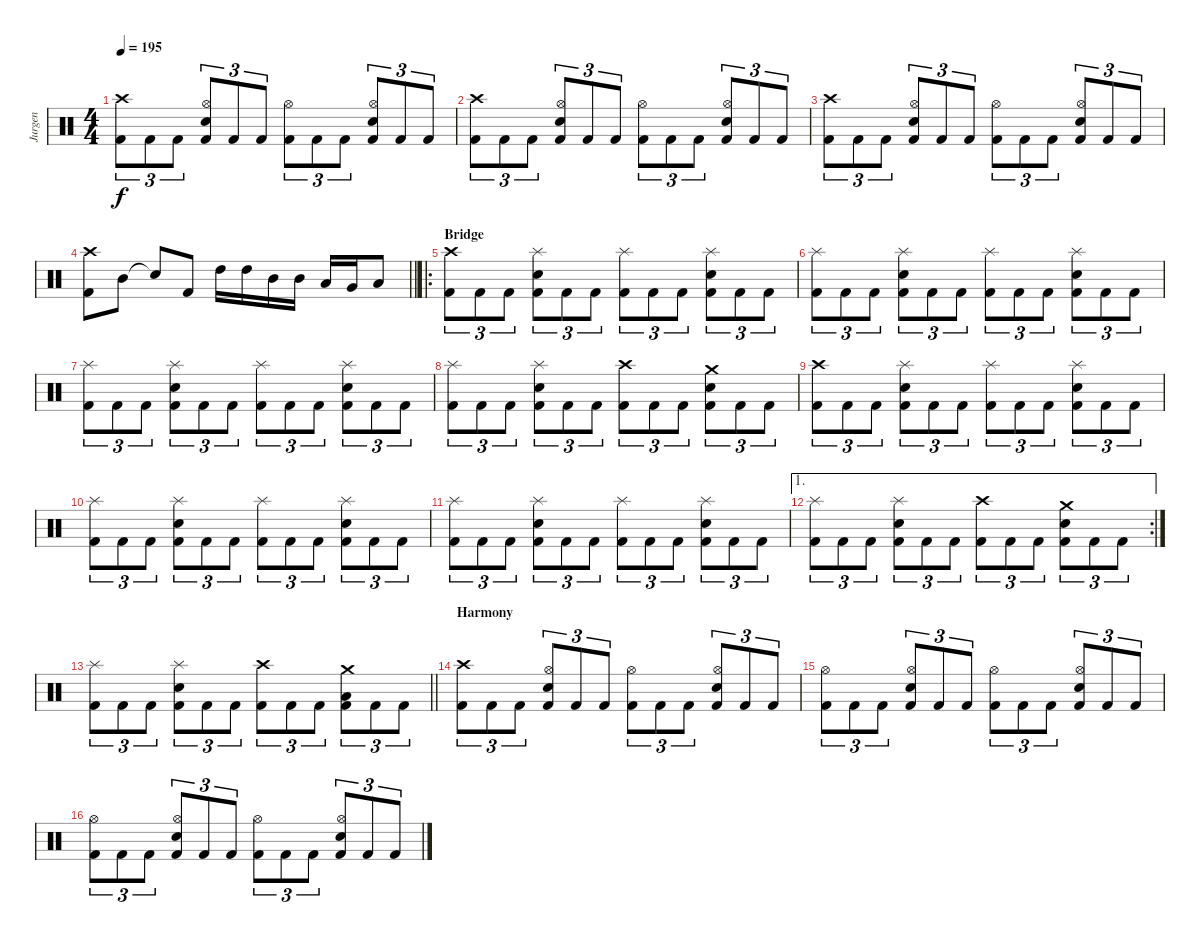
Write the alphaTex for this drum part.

\track ("Jurgen" "Jurgen") {instrument percussion}
\staff {score}
\articulation defaults
\ts (4 4)
\tempo 195
\clef neutral
\ks c
("Crash high (hit)" "Kick (hit) 2").8{tu (3 2) dy f} "Kick (hit) 2".8{tu (3 2)} "Kick (hit) 2".8{tu (3 2)} ("Hi-Hat (open)" "Snare (hit) 2" "Kick (hit) 2").8{tu (3 2)} "Kick (hit) 2".8{tu (3 2)} "Kick (hit) 2".8{tu (3 2)} ("Hi-Hat (open)" "Kick (hit) 2").8{tu (3 2)} "Kick (hit) 2".8{tu (3 2)} "Kick (hit) 2".8{tu (3 2)} ("Hi-Hat (open)" "Snare (hit) 2" "Kick (hit) 2").8{tu (3 2)} "Kick (hit) 2".8{tu (3 2)} "Kick (hit) 2".8{tu (3 2)} |
("Crash high (hit)" "Kick (hit) 2").8{tu (3 2)} "Kick (hit) 2".8{tu (3 2)} "Kick (hit) 2".8{tu (3 2)} ("Hi-Hat (open)" "Snare (hit) 2" "Kick (hit) 2").8{tu (3 2)} "Kick (hit) 2".8{tu (3 2)} "Kick (hit) 2".8{tu (3 2)} ("Hi-Hat (open)" "Kick (hit) 2").8{tu (3 2)} "Kick (hit) 2".8{tu (3 2)} "Kick (hit) 2".8{tu (3 2)} ("Hi-Hat (open)" "Snare (hit) 2" "Kick (hit) 2").8{tu (3 2)} "Kick (hit) 2".8{tu (3 2)} "Kick (hit) 2".8{tu (3 2)} |
("Crash high (hit)" "Kick (hit) 2").8{tu (3 2)} "Kick (hit) 2".8{tu (3 2)} "Kick (hit) 2".8{tu (3 2)} ("Hi-Hat (open)" "Snare (hit) 2" "Kick (hit) 2").8{tu (3 2)} "Kick (hit) 2".8{tu (3 2)} "Kick (hit) 2".8{tu (3 2)} ("Hi-Hat (open)" "Kick (hit) 2").8{tu (3 2)} "Kick (hit) 2".8{tu (3 2)} "Kick (hit) 2".8{tu (3 2)} ("Hi-Hat (open)" "Snare (hit) 2" "Kick (hit) 2").8{tu (3 2)} "Kick (hit) 2".8{tu (3 2)} "Kick (hit) 2".8{tu (3 2)} |
\barLineRight lightlight
("Crash high (hit)" "Kick (hit) 2").8 "Mid Tom (hit)".8 "Snare (hit)"{t}.8 "Kick (hit) 2".8 "High Tom (hit)".16 "High Tom (hit)".16 "Mid Tom (hit)".16 "Mid Tom (hit)".16 "Low Tom (hit)".16 "Very Low Tom (hit)".16 "Low Floor Tom (hit)".8 |
\ro
\section ("" "Bridge")
("Crash high (hit)" "Kick (hit) 2").8{tu (3 2)} "Kick (hit) 2".8{tu (3 2)} "Kick (hit) 2".8{tu (3 2)} ("Splash (hit)" "Snare (hit) 2" "Kick (hit) 2").8{tu (3 2)} "Kick (hit) 2".8{tu (3 2)} "Kick (hit) 2".8{tu (3 2)} ("Splash (hit)" "Kick (hit) 2").8{tu (3 2)} "Kick (hit) 2".8{tu (3 2)} "Kick (hit) 2".8{tu (3 2)} ("Splash (hit)" "Snare (hit) 2" "Kick (hit) 2").8{tu (3 2)} "Kick (hit) 2".8{tu (3 2)} "Kick (hit) 2".8{tu (3 2)} |
("Splash (hit)" "Kick (hit) 2").8{tu (3 2)} "Kick (hit) 2".8{tu (3 2)} "Kick (hit) 2".8{tu (3 2)} ("Splash (hit)" "Snare (hit) 2" "Kick (hit) 2").8{tu (3 2)} "Kick (hit) 2".8{tu (3 2)} "Kick (hit) 2".8{tu (3 2)} ("Splash (hit)" "Kick (hit) 2").8{tu (3 2)} "Kick (hit) 2".8{tu (3 2)} "Kick (hit) 2".8{tu (3 2)} ("Splash (hit)" "Snare (hit) 2" "Kick (hit) 2").8{tu (3 2)} "Kick (hit) 2".8{tu (3 2)} "Kick (hit) 2".8{tu (3 2)} |
("Splash (hit)" "Kick (hit) 2").8{tu (3 2)} "Kick (hit) 2".8{tu (3 2)} "Kick (hit) 2".8{tu (3 2)} ("Splash (hit)" "Snare (hit) 2" "Kick (hit) 2").8{tu (3 2)} "Kick (hit) 2".8{tu (3 2)} "Kick (hit) 2".8{tu (3 2)} ("Splash (hit)" "Kick (hit) 2").8{tu (3 2)} "Kick (hit) 2".8{tu (3 2)} "Kick (hit) 2".8{tu (3 2)} ("Splash (hit)" "Snare (hit) 2" "Kick (hit) 2").8{tu (3 2)} "Kick (hit) 2".8{tu (3 2)} "Kick (hit) 2".8{tu (3 2)} |
("Splash (hit)" "Kick (hit) 2").8{tu (3 2)} "Kick (hit) 2".8{tu (3 2)} "Kick (hit) 2".8{tu (3 2)} ("Splash (hit)" "Snare (hit) 2" "Kick (hit) 2").8{tu (3 2)} "Kick (hit) 2".8{tu (3 2)} "Kick (hit) 2".8{tu (3 2)} ("Crash high (hit)" "Kick (hit) 2").8{tu (3 2)} "Kick (hit) 2".8{tu (3 2)} "Kick (hit) 2".8{tu (3 2)} ("Crash medium (hit)" "Snare (hit) 2" "Kick (hit) 2").8{tu (3 2)} "Kick (hit) 2".8{tu (3 2)} "Kick (hit) 2".8{tu (3 2)} |
("Crash high (hit)" "Kick (hit) 2").8{tu (3 2)} "Kick (hit) 2".8{tu (3 2)} "Kick (hit) 2".8{tu (3 2)} ("Splash (hit)" "Snare (hit) 2" "Kick (hit) 2").8{tu (3 2)} "Kick (hit) 2".8{tu (3 2)} "Kick (hit) 2".8{tu (3 2)} ("Splash (hit)" "Kick (hit) 2").8{tu (3 2)} "Kick (hit) 2".8{tu (3 2)} "Kick (hit) 2".8{tu (3 2)} ("Splash (hit)" "Snare (hit) 2" "Kick (hit) 2").8{tu (3 2)} "Kick (hit) 2".8{tu (3 2)} "Kick (hit) 2".8{tu (3 2)} |
("Splash (hit)" "Kick (hit) 2").8{tu (3 2)} "Kick (hit) 2".8{tu (3 2)} "Kick (hit) 2".8{tu (3 2)} ("Splash (hit)" "Snare (hit) 2" "Kick (hit) 2").8{tu (3 2)} "Kick (hit) 2".8{tu (3 2)} "Kick (hit) 2".8{tu (3 2)} ("Splash (hit)" "Kick (hit) 2").8{tu (3 2)} "Kick (hit) 2".8{tu (3 2)} "Kick (hit) 2".8{tu (3 2)} ("Splash (hit)" "Snare (hit) 2" "Kick (hit) 2").8{tu (3 2)} "Kick (hit) 2".8{tu (3 2)} "Kick (hit) 2".8{tu (3 2)} |
("Splash (hit)" "Kick (hit) 2").8{tu (3 2)} "Kick (hit) 2".8{tu (3 2)} "Kick (hit) 2".8{tu (3 2)} ("Splash (hit)" "Snare (hit) 2" "Kick (hit) 2").8{tu (3 2)} "Kick (hit) 2".8{tu (3 2)} "Kick (hit) 2".8{tu (3 2)} ("Splash (hit)" "Kick (hit) 2").8{tu (3 2)} "Kick (hit) 2".8{tu (3 2)} "Kick (hit) 2".8{tu (3 2)} ("Splash (hit)" "Snare (hit) 2" "Kick (hit) 2").8{tu (3 2)} "Kick (hit) 2".8{tu (3 2)} "Kick (hit) 2".8{tu (3 2)} |
\ae 1
\rc 2
("Splash (hit)" "Kick (hit) 2").8{tu (3 2)} "Kick (hit) 2".8{tu (3 2)} "Kick (hit) 2".8{tu (3 2)} ("Splash (hit)" "Snare (hit) 2" "Kick (hit) 2").8{tu (3 2)} "Kick (hit) 2".8{tu (3 2)} "Kick (hit) 2".8{tu (3 2)} ("Crash high (hit)" "Kick (hit) 2").8{tu (3 2)} "Kick (hit) 2".8{tu (3 2)} "Kick (hit) 2".8{tu (3 2)} ("Crash medium (hit)" "Snare (hit) 2" "Kick (hit) 2").8{tu (3 2)} "Kick (hit) 2".8{tu (3 2)} "Kick (hit) 2".8{tu (3 2)} |
\barLineRight lightlight
("Splash (hit)" "Kick (hit) 2").8{tu (3 2)} "Kick (hit) 2".8{tu (3 2)} "Kick (hit) 2".8{tu (3 2)} ("Splash (hit)" "Snare (hit) 2" "Kick (hit) 2").8{tu (3 2)} "Kick (hit) 2".8{tu (3 2)} "Kick (hit) 2".8{tu (3 2)} ("Crash high (hit)" "Kick (hit) 2").8{tu (3 2)} "Kick (hit) 2".8{tu (3 2)} "Kick (hit) 2".8{tu (3 2)} ("Crash medium (hit)" "Low Tom (hit)" "Kick (hit) 2").8{tu (3 2)} "Kick (hit) 2".8{tu (3 2)} "Kick (hit) 2".8{tu (3 2)} |
\section ("" "Harmony")
("Crash high (hit)" "Kick (hit) 2").8{tu (3 2)} "Kick (hit) 2".8{tu (3 2)} "Kick (hit) 2".8{tu (3 2)} ("Hi-Hat (open)" "Snare (hit) 2" "Kick (hit) 2").8{tu (3 2)} "Kick (hit) 2".8{tu (3 2)} "Kick (hit) 2".8{tu (3 2)} ("Hi-Hat (open)" "Kick (hit) 2").8{tu (3 2)} "Kick (hit) 2".8{tu (3 2)} "Kick (hit) 2".8{tu (3 2)} ("Hi-Hat (open)" "Snare (hit) 2" "Kick (hit) 2").8{tu (3 2)} "Kick (hit) 2".8{tu (3 2)} "Kick (hit) 2".8{tu (3 2)} |
("Hi-Hat (open)" "Kick (hit) 2").8{tu (3 2)} "Kick (hit) 2".8{tu (3 2)} "Kick (hit) 2".8{tu (3 2)} ("Hi-Hat (open)" "Snare (hit) 2" "Kick (hit) 2").8{tu (3 2)} "Kick (hit) 2".8{tu (3 2)} "Kick (hit) 2".8{tu (3 2)} ("Hi-Hat (open)" "Kick (hit) 2").8{tu (3 2)} "Kick (hit) 2".8{tu (3 2)} "Kick (hit) 2".8{tu (3 2)} ("Hi-Hat (open)" "Snare (hit) 2" "Kick (hit) 2").8{tu (3 2)} "Kick (hit) 2".8{tu (3 2)} "Kick (hit) 2".8{tu (3 2)} |
("Hi-Hat (open)" "Kick (hit) 2").8{tu (3 2)} "Kick (hit) 2".8{tu (3 2)} "Kick (hit) 2".8{tu (3 2)} ("Hi-Hat (open)" "Snare (hit) 2" "Kick (hit) 2").8{tu (3 2)} "Kick (hit) 2".8{tu (3 2)} "Kick (hit) 2".8{tu (3 2)} ("Hi-Hat (open)" "Kick (hit) 2").8{tu (3 2)} "Kick (hit) 2".8{tu (3 2)} "Kick (hit) 2".8{tu (3 2)} ("Hi-Hat (open)" "Snare (hit) 2" "Kick (hit) 2").8{tu (3 2)} "Kick (hit) 2".8{tu (3 2)} "Kick (hit) 2".8{tu (3 2)}
